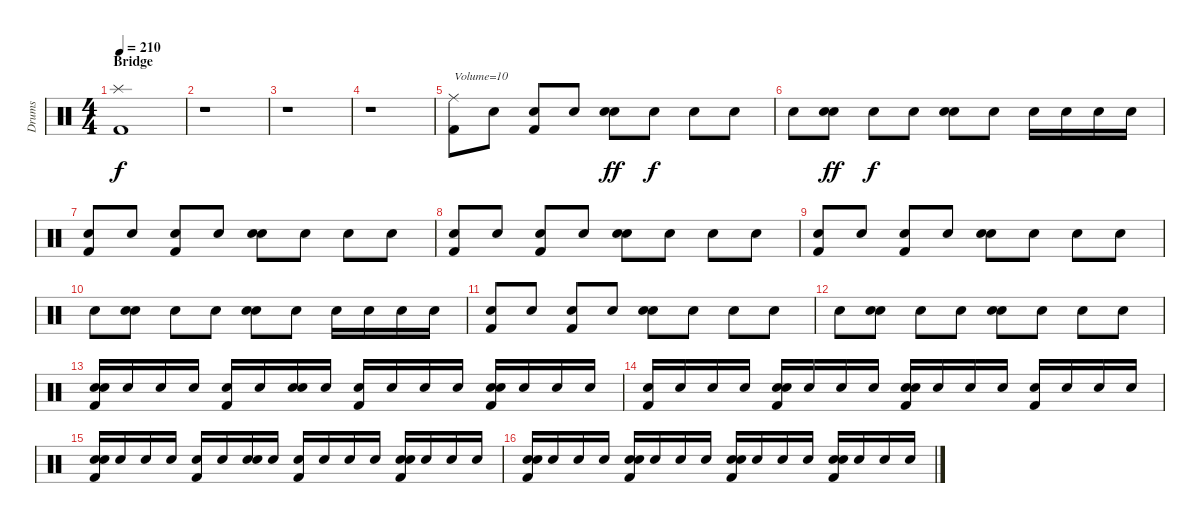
\track ("Drums" "Drums") {instrument percussion}
\staff {score}
\articulation defaults
\ts (4 4)
\section ("" "Bridge")
\tempo 210
\clef neutral
\ks c
("Splash (hit)" "Kick (hit) 2").1{dy f} |
r.1 |
r.1 |
r.1 |
("Ride (middle)" "Kick (hit) 2").8{txt "Volume=10" volume 10} "Electric Snare (hit)".8 ("Electric Snare (hit)" "Kick (hit) 2").8 "Electric Snare (hit)".8 ("Electric Snare (hit)" "Electric Snare (hit)").8{dy ff} "Electric Snare (hit)".8{dy f} "Electric Snare (hit)".8 "Electric Snare (hit)".8 |
"Electric Snare (hit)".8 ("Electric Snare (hit)" "Electric Snare (hit)").8{dy ff} "Electric Snare (hit)".8{dy f} "Electric Snare (hit)".8 ("Electric Snare (hit)" "Electric Snare (hit)").8 "Electric Snare (hit)".8 "Electric Snare (hit)".16 "Electric Snare (hit)".16 "Electric Snare (hit)".16 "Electric Snare (hit)".16 |
("Electric Snare (hit)" "Kick (hit) 2").8 "Electric Snare (hit)".8 ("Electric Snare (hit)" "Kick (hit) 2").8 "Electric Snare (hit)".8 ("Electric Snare (hit)" "Electric Snare (hit)").8 "Electric Snare (hit)".8 "Electric Snare (hit)".8 "Electric Snare (hit)".8 |
("Electric Snare (hit)" "Kick (hit) 2").8 "Electric Snare (hit)".8 ("Electric Snare (hit)" "Kick (hit) 2").8 "Electric Snare (hit)".8 ("Electric Snare (hit)" "Electric Snare (hit)").8 "Electric Snare (hit)".8 "Electric Snare (hit)".8 "Electric Snare (hit)".8 |
("Electric Snare (hit)" "Kick (hit) 2").8 "Electric Snare (hit)".8 ("Electric Snare (hit)" "Kick (hit) 2").8 "Electric Snare (hit)".8 ("Electric Snare (hit)" "Electric Snare (hit)").8 "Electric Snare (hit)".8 "Electric Snare (hit)".8 "Electric Snare (hit)".8 |
"Electric Snare (hit)".8 ("Electric Snare (hit)" "Electric Snare (hit)").8 "Electric Snare (hit)".8 "Electric Snare (hit)".8 ("Electric Snare (hit)" "Electric Snare (hit)").8 "Electric Snare (hit)".8 "Electric Snare (hit)".16 "Electric Snare (hit)".16 "Electric Snare (hit)".16 "Electric Snare (hit)".16 |
("Electric Snare (hit)" "Kick (hit) 2").8 "Electric Snare (hit)".8 ("Electric Snare (hit)" "Kick (hit) 2").8 "Electric Snare (hit)".8 ("Electric Snare (hit)" "Electric Snare (hit)").8 "Electric Snare (hit)".8 "Electric Snare (hit)".8 "Electric Snare (hit)".8 |
"Electric Snare (hit)".8 ("Electric Snare (hit)" "Electric Snare (hit)").8 "Electric Snare (hit)".8 "Electric Snare (hit)".8 ("Electric Snare (hit)" "Electric Snare (hit)").8 "Electric Snare (hit)".8 "Electric Snare (hit)".8 "Electric Snare (hit)".8 |
("Electric Snare (hit)" "Electric Snare (hit)" "Kick (hit) 2").16 "Electric Snare (hit)".16 "Electric Snare (hit)".16 "Electric Snare (hit)".16 ("Electric Snare (hit)" "Kick (hit) 2").16 "Electric Snare (hit)".16 ("Electric Snare (hit)" "Electric Snare (hit)").16 "Electric Snare (hit)".16 ("Electric Snare (hit)" "Kick (hit) 2").16 "Electric Snare (hit)".16 "Electric Snare (hit)".16 "Electric Snare (hit)".16 ("Electric Snare (hit)" "Electric Snare (hit)" "Kick (hit) 2").16 "Electric Snare (hit)".16 "Electric Snare (hit)".16 "Electric Snare (hit)".16 |
("Electric Snare (hit)" "Kick (hit) 2").16 "Electric Snare (hit)".16 "Electric Snare (hit)".16 "Electric Snare (hit)".16 ("Electric Snare (hit)" "Electric Snare (hit)" "Kick (hit) 2").16 "Electric Snare (hit)".16 "Electric Snare (hit)".16 "Electric Snare (hit)".16 ("Electric Snare (hit)" "Electric Snare (hit)" "Kick (hit) 2").16 "Electric Snare (hit)".16 "Electric Snare (hit)".16 "Electric Snare (hit)".16 ("Electric Snare (hit)" "Kick (hit) 2").16 "Electric Snare (hit)".16 "Electric Snare (hit)".16 "Electric Snare (hit)".16 |
("Electric Snare (hit)" "Electric Snare (hit)" "Kick (hit) 2").16 "Electric Snare (hit)".16 "Electric Snare (hit)".16 "Electric Snare (hit)".16 ("Electric Snare (hit)" "Kick (hit) 2").16 "Electric Snare (hit)".16 ("Electric Snare (hit)" "Electric Snare (hit)").16 "Electric Snare (hit)".16 ("Electric Snare (hit)" "Kick (hit) 2").16 "Electric Snare (hit)".16 "Electric Snare (hit)".16 "Electric Snare (hit)".16 ("Electric Snare (hit)" "Electric Snare (hit)" "Kick (hit) 2").16 "Electric Snare (hit)".16 "Electric Snare (hit)".16 "Electric Snare (hit)".16 |
("Electric Snare (hit)" "Electric Snare (hit)" "Kick (hit) 2").16 "Electric Snare (hit)".16 "Electric Snare (hit)".16 "Electric Snare (hit)".16 ("Electric Snare (hit)" "Electric Snare (hit)" "Kick (hit) 2").16 "Electric Snare (hit)".16 "Electric Snare (hit)".16 "Electric Snare (hit)".16 ("Electric Snare (hit)" "Electric Snare (hit)" "Kick (hit) 2").16 "Electric Snare (hit)".16 "Electric Snare (hit)".16 "Electric Snare (hit)".16 ("Electric Snare (hit)" "Electric Snare (hit)" "Kick (hit) 2").16 "Electric Snare (hit)".16 "Electric Snare (hit)".16 "Electric Snare (hit)".16
